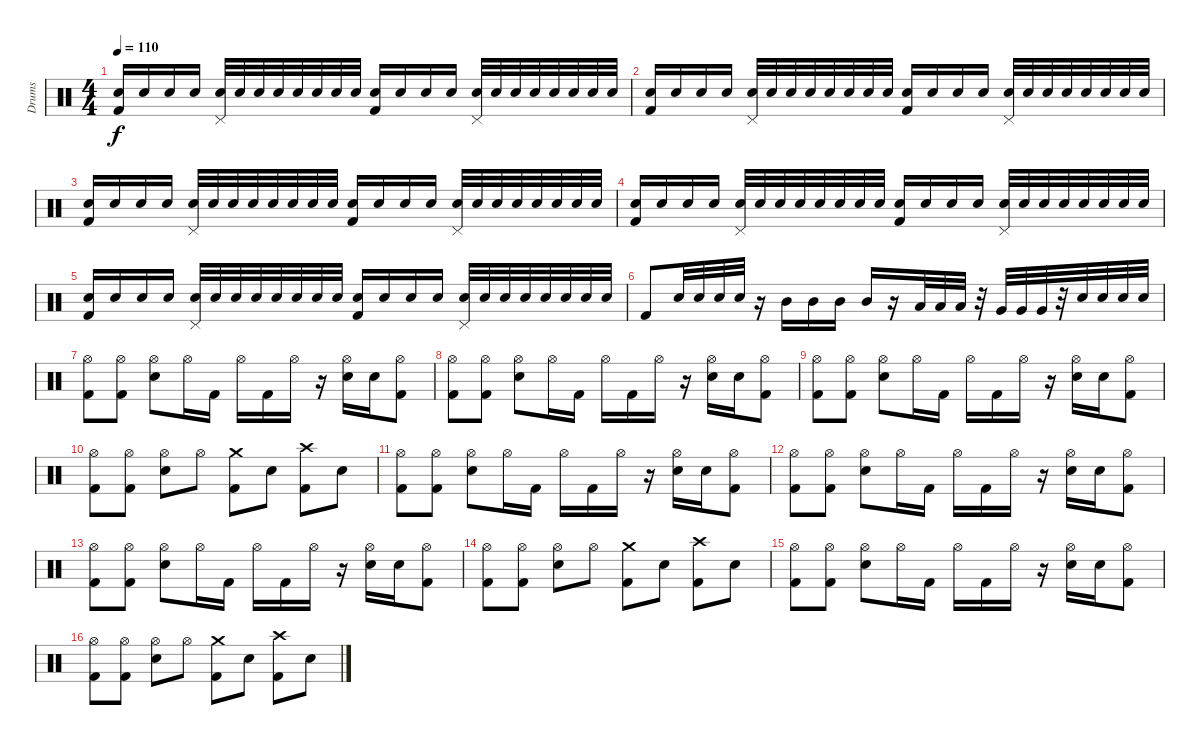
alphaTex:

\track ("Drums" "Drums") {instrument percussion}
\staff {score}
\articulation defaults
\ts (4 4)
\tempo 110
\clef neutral
\ks c
("Snare (hit) 2" "Kick (hit) 2").16{dy f} "Snare (hit) 2".16 "Snare (hit) 2".16 "Snare (hit) 2".16 ("Snare (hit) 2" "Pedal Hi-Hat (hit)").32 "Snare (hit) 2".32 "Snare (hit) 2".32 "Snare (hit) 2".32 "Snare (hit) 2".32 "Snare (hit) 2".32 "Snare (hit) 2".32 "Snare (hit) 2".32 ("Snare (hit) 2" "Kick (hit) 2").16 "Snare (hit) 2".16 "Snare (hit) 2".16 "Snare (hit) 2".16 ("Snare (hit) 2" "Pedal Hi-Hat (hit)").32 "Snare (hit) 2".32 "Snare (hit) 2".32 "Snare (hit) 2".32 "Snare (hit) 2".32 "Snare (hit) 2".32 "Snare (hit) 2".32 "Snare (hit) 2".32 |
("Snare (hit) 2" "Kick (hit) 2").16 "Snare (hit) 2".16 "Snare (hit) 2".16 "Snare (hit) 2".16 ("Snare (hit) 2" "Pedal Hi-Hat (hit)").32 "Snare (hit) 2".32 "Snare (hit) 2".32 "Snare (hit) 2".32 "Snare (hit) 2".32 "Snare (hit) 2".32 "Snare (hit) 2".32 "Snare (hit) 2".32 ("Snare (hit) 2" "Kick (hit) 2").16 "Snare (hit) 2".16 "Snare (hit) 2".16 "Snare (hit) 2".16 ("Snare (hit) 2" "Pedal Hi-Hat (hit)").32 "Snare (hit) 2".32 "Snare (hit) 2".32 "Snare (hit) 2".32 "Snare (hit) 2".32 "Snare (hit) 2".32 "Snare (hit) 2".32 "Snare (hit) 2".32 |
("Snare (hit) 2" "Kick (hit) 2").16 "Snare (hit) 2".16 "Snare (hit) 2".16 "Snare (hit) 2".16 ("Snare (hit) 2" "Pedal Hi-Hat (hit)").32 "Snare (hit) 2".32 "Snare (hit) 2".32 "Snare (hit) 2".32 "Snare (hit) 2".32 "Snare (hit) 2".32 "Snare (hit) 2".32 "Snare (hit) 2".32 ("Snare (hit) 2" "Kick (hit) 2").16 "Snare (hit) 2".16 "Snare (hit) 2".16 "Snare (hit) 2".16 ("Snare (hit) 2" "Pedal Hi-Hat (hit)").32 "Snare (hit) 2".32 "Snare (hit) 2".32 "Snare (hit) 2".32 "Snare (hit) 2".32 "Snare (hit) 2".32 "Snare (hit) 2".32 "Snare (hit) 2".32 |
("Snare (hit) 2" "Kick (hit) 2").16 "Snare (hit) 2".16 "Snare (hit) 2".16 "Snare (hit) 2".16 ("Snare (hit) 2" "Pedal Hi-Hat (hit)").32 "Snare (hit) 2".32 "Snare (hit) 2".32 "Snare (hit) 2".32 "Snare (hit) 2".32 "Snare (hit) 2".32 "Snare (hit) 2".32 "Snare (hit) 2".32 ("Snare (hit) 2" "Kick (hit) 2").16 "Snare (hit) 2".16 "Snare (hit) 2".16 "Snare (hit) 2".16 ("Snare (hit) 2" "Pedal Hi-Hat (hit)").32 "Snare (hit) 2".32 "Snare (hit) 2".32 "Snare (hit) 2".32 "Snare (hit) 2".32 "Snare (hit) 2".32 "Snare (hit) 2".32 "Snare (hit) 2".32 |
("Snare (hit) 2" "Kick (hit) 2").16 "Snare (hit) 2".16 "Snare (hit) 2".16 "Snare (hit) 2".16 ("Snare (hit) 2" "Pedal Hi-Hat (hit)").32 "Snare (hit) 2".32 "Snare (hit) 2".32 "Snare (hit) 2".32 "Snare (hit) 2".32 "Snare (hit) 2".32 "Snare (hit) 2".32 "Snare (hit) 2".32 ("Snare (hit) 2" "Kick (hit) 2").16 "Snare (hit) 2".16 "Snare (hit) 2".16 "Snare (hit) 2".16 ("Snare (hit) 2" "Pedal Hi-Hat (hit)").32 "Snare (hit) 2".32 "Snare (hit) 2".32 "Snare (hit) 2".32 "Snare (hit) 2".32 "Snare (hit) 2".32 "Snare (hit) 2".32 "Snare (hit) 2".32 |
"Kick (hit) 2".8 "Snare (hit) 2".32 "Snare (hit) 2".32 "Snare (hit) 2".32 "Snare (hit) 2".32 r.16 "Mid Tom (hit)".16 "Mid Tom (hit)".16 "Mid Tom (hit)".16 "Mid Tom (hit)".16 r.16 "Low Tom (hit)".32 "Low Tom (hit)".32 "Low Tom (hit)".32 r.32 "Very Low Tom (hit)".32 "Very Low Tom (hit)".32 "Very Low Tom (hit)".32 r.32 "Snare (hit) 2".32 "Snare (hit) 2".32 "Snare (hit) 2".32 "Snare (hit) 2".32 |
("Hi-Hat (open)" "Kick (hit) 2").8 ("Hi-Hat (open)" "Kick (hit) 2").8 ("Hi-Hat (open)" "Snare (hit) 2").8 "Hi-Hat (open)".16 "Kick (hit) 2".16 "Hi-Hat (open)".16 "Kick (hit) 2".16 "Hi-Hat (open)".16 r.16 ("Hi-Hat (open)" "Snare (hit) 2").16 "Snare (hit) 2".16 ("Hi-Hat (open)" "Kick (hit) 2").8 |
("Hi-Hat (open)" "Kick (hit) 2").8 ("Hi-Hat (open)" "Kick (hit) 2").8 ("Hi-Hat (open)" "Snare (hit) 2").8 "Hi-Hat (open)".16 "Kick (hit) 2".16 "Hi-Hat (open)".16 "Kick (hit) 2".16 "Hi-Hat (open)".16 r.16 ("Hi-Hat (open)" "Snare (hit) 2").16 "Snare (hit) 2".16 ("Hi-Hat (open)" "Kick (hit) 2").8 |
("Hi-Hat (open)" "Kick (hit) 2").8 ("Hi-Hat (open)" "Kick (hit) 2").8 ("Hi-Hat (open)" "Snare (hit) 2").8 "Hi-Hat (open)".16 "Kick (hit) 2".16 "Hi-Hat (open)".16 "Kick (hit) 2".16 "Hi-Hat (open)".16 r.16 ("Hi-Hat (open)" "Snare (hit) 2").16 "Snare (hit) 2".16 ("Hi-Hat (open)" "Kick (hit) 2").8 |
("Hi-Hat (open)" "Kick (hit) 2").8 ("Hi-Hat (open)" "Kick (hit) 2").8 ("Hi-Hat (open)" "Snare (hit) 2").8 "Hi-Hat (open)".8 ("Crash medium (hit)" "Kick (hit) 2").8 "Snare (hit) 2".8 ("Crash high (hit)" "Kick (hit) 2").8 "Snare (hit) 2".8 |
("Hi-Hat (open)" "Kick (hit) 2").8 ("Hi-Hat (open)" "Kick (hit) 2").8 ("Hi-Hat (open)" "Snare (hit) 2").8 "Hi-Hat (open)".16 "Kick (hit) 2".16 "Hi-Hat (open)".16 "Kick (hit) 2".16 "Hi-Hat (open)".16 r.16 ("Hi-Hat (open)" "Snare (hit) 2").16 "Snare (hit) 2".16 ("Hi-Hat (open)" "Kick (hit) 2").8 |
("Hi-Hat (open)" "Kick (hit) 2").8 ("Hi-Hat (open)" "Kick (hit) 2").8 ("Hi-Hat (open)" "Snare (hit) 2").8 "Hi-Hat (open)".16 "Kick (hit) 2".16 "Hi-Hat (open)".16 "Kick (hit) 2".16 "Hi-Hat (open)".16 r.16 ("Hi-Hat (open)" "Snare (hit) 2").16 "Snare (hit) 2".16 ("Hi-Hat (open)" "Kick (hit) 2").8 |
("Hi-Hat (open)" "Kick (hit) 2").8 ("Hi-Hat (open)" "Kick (hit) 2").8 ("Hi-Hat (open)" "Snare (hit) 2").8 "Hi-Hat (open)".16 "Kick (hit) 2".16 "Hi-Hat (open)".16 "Kick (hit) 2".16 "Hi-Hat (open)".16 r.16 ("Hi-Hat (open)" "Snare (hit) 2").16 "Snare (hit) 2".16 ("Hi-Hat (open)" "Kick (hit) 2").8 |
("Hi-Hat (open)" "Kick (hit) 2").8 ("Hi-Hat (open)" "Kick (hit) 2").8 ("Hi-Hat (open)" "Snare (hit) 2").8 "Hi-Hat (open)".8 ("Crash medium (hit)" "Kick (hit) 2").8 "Snare (hit) 2".8 ("Crash high (hit)" "Kick (hit) 2").8 "Snare (hit) 2".8 |
("Hi-Hat (open)" "Kick (hit) 2").8 ("Hi-Hat (open)" "Kick (hit) 2").8 ("Hi-Hat (open)" "Snare (hit) 2").8 "Hi-Hat (open)".16 "Kick (hit) 2".16 "Hi-Hat (open)".16 "Kick (hit) 2".16 "Hi-Hat (open)".16 r.16 ("Hi-Hat (open)" "Snare (hit) 2").16 "Snare (hit) 2".16 ("Hi-Hat (open)" "Kick (hit) 2").8 |
("Hi-Hat (open)" "Kick (hit) 2").8 ("Hi-Hat (open)" "Kick (hit) 2").8 ("Hi-Hat (open)" "Snare (hit) 2").8 "Hi-Hat (open)".8 ("Crash medium (hit)" "Kick (hit) 2").8 "Snare (hit) 2".8 ("Crash high (hit)" "Kick (hit) 2").8 "Snare (hit) 2".8
